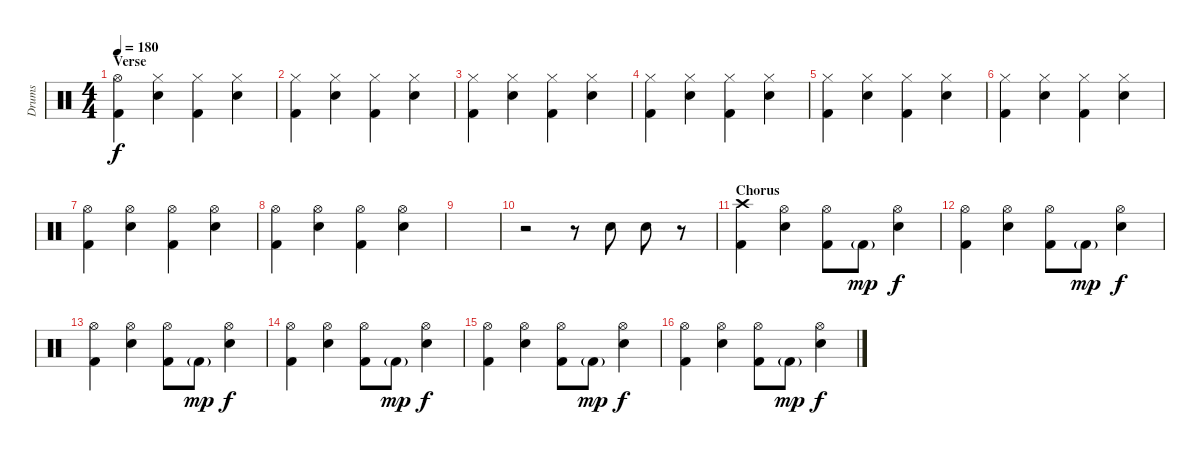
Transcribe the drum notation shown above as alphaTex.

\track ("Drums" "Drums") {instrument percussion}
\staff {score}
\articulation defaults
\ts (4 4)
\section ("" "Verse")
\tempo 180
\clef neutral
\ks c
("Hi-Hat (open)" "Kick (hit) 2").4{dy f} ("Hi-Hat (closed)" "Electric Snare (hit)").4 ("Hi-Hat (closed)" "Kick (hit) 2").4 ("Hi-Hat (closed)" "Electric Snare (hit)").4 |
("Hi-Hat (closed)" "Kick (hit) 2").4 ("Hi-Hat (closed)" "Electric Snare (hit)").4 ("Hi-Hat (closed)" "Kick (hit) 2").4 ("Hi-Hat (closed)" "Electric Snare (hit)").4 |
("Hi-Hat (closed)" "Kick (hit) 2").4 ("Hi-Hat (closed)" "Electric Snare (hit)").4 ("Hi-Hat (closed)" "Kick (hit) 2").4 ("Hi-Hat (closed)" "Electric Snare (hit)").4 |
("Hi-Hat (closed)" "Kick (hit) 2").4 ("Hi-Hat (closed)" "Electric Snare (hit)").4 ("Hi-Hat (closed)" "Kick (hit) 2").4 ("Hi-Hat (closed)" "Electric Snare (hit)").4 |
("Hi-Hat (closed)" "Kick (hit) 2").4 ("Hi-Hat (closed)" "Electric Snare (hit)").4 ("Hi-Hat (closed)" "Kick (hit) 2").4 ("Hi-Hat (closed)" "Electric Snare (hit)").4 |
("Hi-Hat (closed)" "Kick (hit) 2").4 ("Hi-Hat (closed)" "Electric Snare (hit)").4 ("Hi-Hat (closed)" "Kick (hit) 2").4 ("Hi-Hat (closed)" "Electric Snare (hit)").4 |
("Hi-Hat (open)" "Kick (hit) 2").4 ("Hi-Hat (open)" "Electric Snare (hit)").4 ("Hi-Hat (open)" "Kick (hit) 2").4 ("Hi-Hat (open)" "Electric Snare (hit)").4 |
("Hi-Hat (open)" "Kick (hit) 2").4 ("Hi-Hat (open)" "Electric Snare (hit)").4 ("Hi-Hat (open)" "Kick (hit) 2").4 ("Hi-Hat (open)" "Electric Snare (hit)").4 |
|
r.2 r.8 "Electric Snare (hit)".8 "Electric Snare (hit)".8 r.8 |
\section ("" "Chorus")
("Crash high (hit)" "Kick (hit) 2").4 ("Hi-Hat (open)" "Electric Snare (hit)").4 ("Hi-Hat (open)" "Kick (hit) 2").8 "Kick (hit) 2"{g}.8{dy mp} ("Hi-Hat (open)" "Electric Snare (hit)").4{dy f} |
("Hi-Hat (open)" "Kick (hit) 2").4 ("Hi-Hat (open)" "Electric Snare (hit)").4 ("Hi-Hat (open)" "Kick (hit) 2").8 "Kick (hit) 2"{g}.8{dy mp} ("Hi-Hat (open)" "Electric Snare (hit)").4{dy f} |
("Hi-Hat (open)" "Kick (hit) 2").4 ("Hi-Hat (open)" "Electric Snare (hit)").4 ("Hi-Hat (open)" "Kick (hit) 2").8 "Kick (hit) 2"{g}.8{dy mp} ("Hi-Hat (open)" "Electric Snare (hit)").4{dy f} |
("Hi-Hat (open)" "Kick (hit) 2").4 ("Hi-Hat (open)" "Electric Snare (hit)").4 ("Hi-Hat (open)" "Kick (hit) 2").8 "Kick (hit) 2"{g}.8{dy mp} ("Hi-Hat (open)" "Electric Snare (hit)").4{dy f} |
("Hi-Hat (open)" "Kick (hit) 2").4 ("Hi-Hat (open)" "Electric Snare (hit)").4 ("Hi-Hat (open)" "Kick (hit) 2").8 "Kick (hit) 2"{g}.8{dy mp} ("Hi-Hat (open)" "Electric Snare (hit)").4{dy f} |
("Hi-Hat (open)" "Kick (hit) 2").4 ("Hi-Hat (open)" "Electric Snare (hit)").4 ("Hi-Hat (open)" "Kick (hit) 2").8 "Kick (hit) 2"{g}.8{dy mp} ("Hi-Hat (open)" "Electric Snare (hit)").4{dy f}
